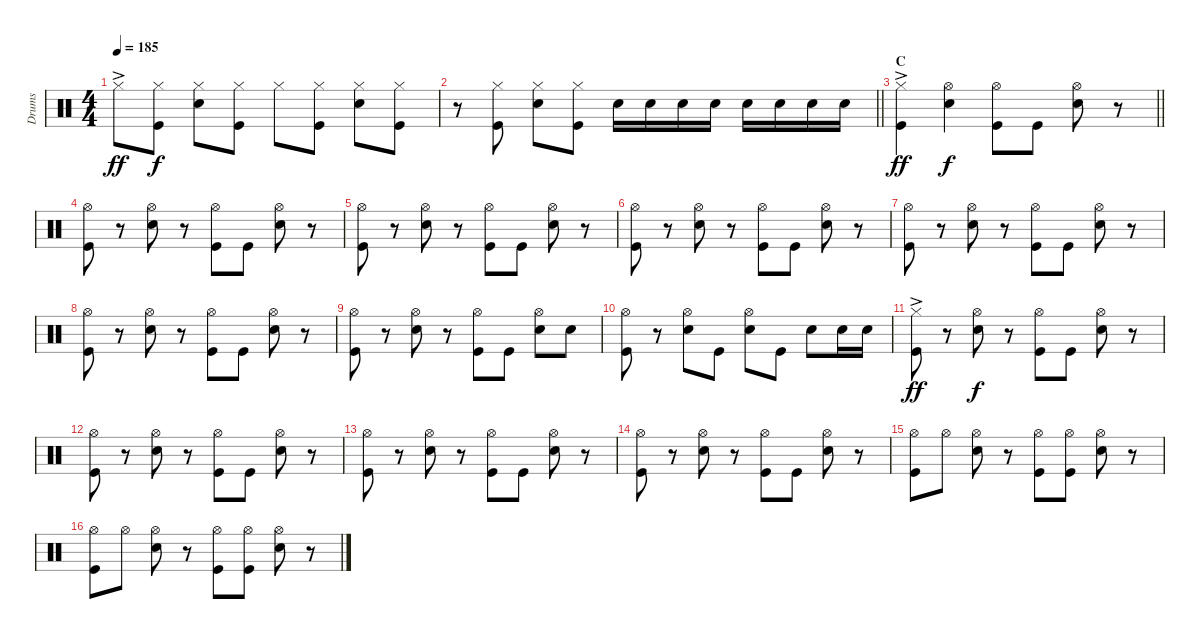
\track ("Drums" "Drums") {instrument percussion}
\staff {score}
\articulation defaults
\ts (4 4)
\tempo 185
\clef neutral
\ks c "Hi-Hat (closed)"{ac}.8{dy ff}
("Hi-Hat (closed)" "Kick (hit)").8{dy f} ("Hi-Hat (closed)" "Snare (hit) 2").8 ("Hi-Hat (closed)" "Kick (hit)").8 "Hi-Hat (closed)".8 ("Hi-Hat (closed)" "Kick (hit)").8 ("Hi-Hat (closed)" "Snare (hit) 2").8 ("Hi-Hat (closed)" "Kick (hit)").8 |
\barLineRight lightlight
r.8 ("Hi-Hat (closed)" "Kick (hit)").8 ("Hi-Hat (closed)" "Snare (hit) 2").8 ("Hi-Hat (closed)" "Kick (hit)").8 "Snare (hit) 2".16 "Snare (hit) 2".16 "Snare (hit) 2".16 "Snare (hit) 2".16 "Snare (hit) 2".16 "Snare (hit) 2".16 "Snare (hit) 2".16 "Snare (hit) 2".16 |
\section ("" "C")
\barLineRight lightlight
("Hi-Hat (closed)"{ac} "Kick (hit)").4{dy ff} ("Hi-Hat (open)" "Snare (hit) 2").4{dy f} ("Hi-Hat (open)" "Kick (hit)").8 "Kick (hit)".8 ("Snare (hit) 2" "Hi-Hat (open)").8 r.8 |
("Hi-Hat (open)" "Kick (hit)").8 r.8 ("Hi-Hat (open)" "Snare (hit) 2").8 r.8 ("Hi-Hat (open)" "Kick (hit)").8 "Kick (hit)".8 ("Snare (hit) 2" "Hi-Hat (open)").8 r.8 |
("Hi-Hat (open)" "Kick (hit)").8 r.8 ("Hi-Hat (open)" "Snare (hit) 2").8 r.8 ("Hi-Hat (open)" "Kick (hit)").8 "Kick (hit)".8 ("Hi-Hat (open)" "Snare (hit) 2").8 r.8 |
("Hi-Hat (open)" "Kick (hit)").8 r.8 ("Hi-Hat (open)" "Snare (hit) 2").8 r.8 ("Hi-Hat (open)" "Kick (hit)").8 "Kick (hit)".8 ("Hi-Hat (open)" "Snare (hit) 2").8 r.8 |
("Hi-Hat (open)" "Kick (hit)").8 r.8 ("Hi-Hat (open)" "Snare (hit) 2").8 r.8 ("Hi-Hat (open)" "Kick (hit)").8 "Kick (hit)".8 ("Hi-Hat (open)" "Snare (hit) 2").8 r.8 |
("Hi-Hat (open)" "Kick (hit)").8 r.8 ("Hi-Hat (open)" "Snare (hit) 2").8 r.8 ("Hi-Hat (open)" "Kick (hit)").8 "Kick (hit)".8 ("Hi-Hat (open)" "Snare (hit) 2").8 r.8 |
("Hi-Hat (open)" "Kick (hit)").8 r.8 ("Hi-Hat (open)" "Snare (hit) 2").8 r.8 ("Hi-Hat (open)" "Kick (hit)").8 "Kick (hit)".8 ("Hi-Hat (open)" "Snare (hit) 2").8 "Snare (hit) 2".8 |
("Hi-Hat (open)" "Kick (hit)").8 r.8 ("Hi-Hat (open)" "Snare (hit) 2").8 "Kick (hit)".8 ("Hi-Hat (open)" "Snare (hit) 2").8 "Kick (hit)".8 "Snare (hit) 2".8 "Snare (hit) 2".16 "Snare (hit) 2".16 |
("Hi-Hat (closed)"{ac} "Kick (hit)").8{dy ff} r.8 ("Hi-Hat (open)" "Snare (hit) 2").8{dy f} r.8 ("Hi-Hat (open)" "Kick (hit)").8 "Kick (hit)".8 ("Hi-Hat (open)" "Snare (hit) 2").8 r.8 |
("Hi-Hat (open)" "Kick (hit)").8 r.8 ("Hi-Hat (open)" "Snare (hit) 2").8 r.8 ("Hi-Hat (open)" "Kick (hit)").8 "Kick (hit)".8 ("Hi-Hat (open)" "Snare (hit) 2").8 r.8 |
("Hi-Hat (open)" "Kick (hit)").8 r.8 ("Hi-Hat (open)" "Snare (hit) 2").8 r.8 ("Hi-Hat (open)" "Kick (hit)").8 "Kick (hit)".8 ("Hi-Hat (open)" "Snare (hit) 2").8 r.8 |
("Hi-Hat (open)" "Kick (hit)").8 r.8 ("Hi-Hat (open)" "Snare (hit) 2").8 r.8 ("Hi-Hat (open)" "Kick (hit)").8 "Kick (hit)".8 ("Hi-Hat (open)" "Snare (hit) 2").8 r.8 |
("Hi-Hat (open)" "Kick (hit)").8 "Hi-Hat (open)".8 ("Hi-Hat (open)" "Snare (hit) 2").8 r.8 ("Hi-Hat (open)" "Kick (hit)").8 ("Kick (hit)" "Hi-Hat (open)").8 ("Hi-Hat (open)" "Snare (hit) 2").8 r.8 |
("Hi-Hat (open)" "Kick (hit)").8 "Hi-Hat (open)".8 ("Hi-Hat (open)" "Snare (hit) 2").8 r.8 ("Hi-Hat (open)" "Kick (hit)").8 ("Kick (hit)" "Hi-Hat (open)").8 ("Hi-Hat (open)" "Snare (hit) 2").8 r.8
